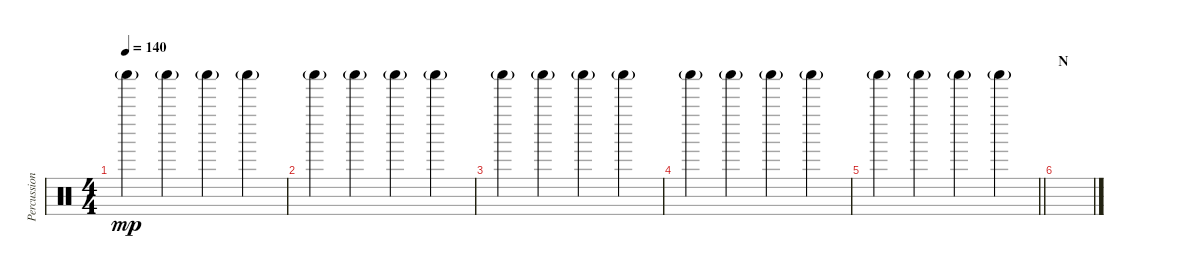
\track ("Percussion" "Percussion") {instrument percussion}
\staff {score}
\articulation defaults
\ts (4 4)
\tempo 140
\clef neutral
\ks c "Shaker (hit)"{g}.4{dy mp} "Shaker (hit)"{g}.4 "Shaker (hit)"{g}.4 "Shaker (hit)"{g}.4
|
"Shaker (hit)"{g}.4 "Shaker (hit)"{g}.4 "Shaker (hit)"{g}.4 "Shaker (hit)"{g}.4 |
"Shaker (hit)"{g}.4 "Shaker (hit)"{g}.4 "Shaker (hit)"{g}.4 "Shaker (hit)"{g}.4 |
"Shaker (hit)"{g}.4 "Shaker (hit)"{g}.4 "Shaker (hit)"{g}.4 "Shaker (hit)"{g}.4 |
\barLineRight lightlight "Shaker (hit)"{g}.4 "Shaker (hit)"{g}.4 "Shaker (hit)"{g}.4 "Shaker (hit)"{g}.4
|
\section ("" "N")
